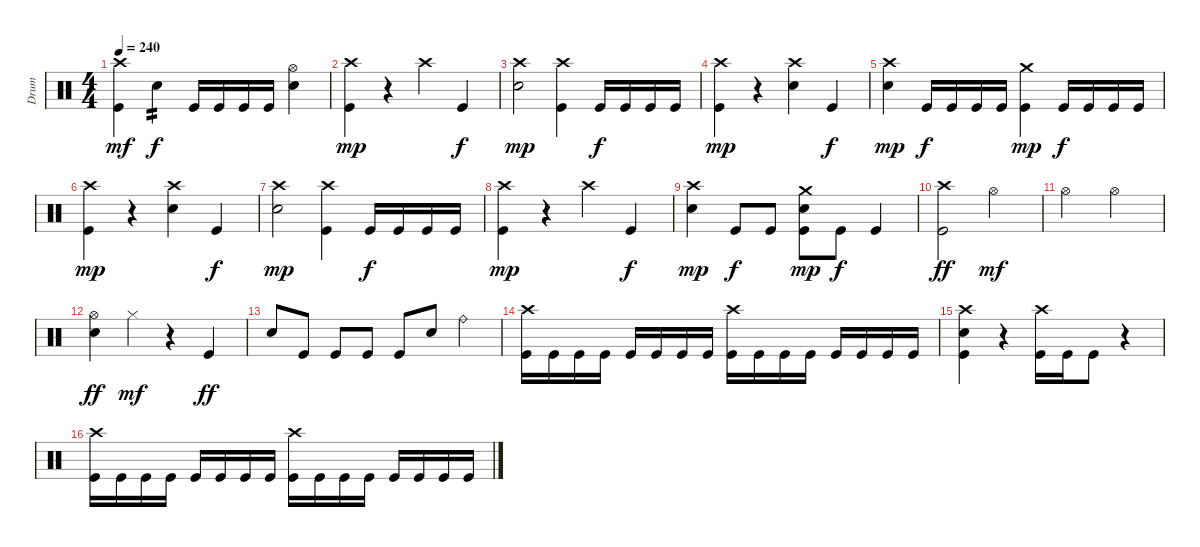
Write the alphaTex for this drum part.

\track ("Drum" "Drum") {instrument percussion}
\staff {score}
\articulation defaults
\ts (4 4)
\tempo 240
\clef neutral
\ks c
("Crash high (hit)" "Kick (hit)").4{dy mf} "Electric Snare (hit)".4{tp 2 dy f} "Kick (hit)".16 "Kick (hit)".16 "Kick (hit)".16 "Kick (hit)".16 ("Hi-Hat (open)" "Electric Snare (hit)").4 |
("Crash high (hit)" "Kick (hit)").4{dy mp} r.4 "Crash high (hit)".4 "Kick (hit)".4{dy f} |
("Crash high (hit)" "Electric Snare (hit)").2{dy mp} ("Crash high (hit)" "Kick (hit)").4 "Kick (hit)".16{dy f} "Kick (hit)".16 "Kick (hit)".16 "Kick (hit)".16 |
("Crash high (hit)" "Kick (hit)").4{dy mp} r.4 ("Crash high (hit)" "Electric Snare (hit)").4 "Kick (hit)".4{dy f} |
("Crash high (hit)" "Electric Snare (hit)").4{dy mp} "Kick (hit)".16{dy f} "Kick (hit)".16 "Kick (hit)".16 "Kick (hit)".16 ("Crash medium (hit)" "Kick (hit)").4{dy mp} "Kick (hit)".16{dy f} "Kick (hit)".16 "Kick (hit)".16 "Kick (hit)".16 |
("Crash high (hit)" "Kick (hit)").4{dy mp} r.4 ("Crash high (hit)" "Electric Snare (hit)").4 "Kick (hit)".4{dy f} |
("Crash high (hit)" "Electric Snare (hit)").2{dy mp} ("Crash high (hit)" "Kick (hit)").4 "Kick (hit)".16{dy f} "Kick (hit)".16 "Kick (hit)".16 "Kick (hit)".16 |
("Crash high (hit)" "Kick (hit)").4{dy mp} r.4 "Crash high (hit)".4 "Kick (hit)".4{dy f} |
("Crash high (hit)" "Electric Snare (hit)").4{dy mp} "Kick (hit)".8{dy f} "Kick (hit)".8 ("Crash medium (hit)" "Electric Snare (hit)" "Kick (hit)").8{dy mp} "Kick (hit)".8{dy f} "Kick (hit)".4 |
("Crash high (hit)" "Kick (hit)").2{dy ff} "Hi-Hat (open)".2{dy mf} |
"Hi-Hat (open)".2 "Hi-Hat (open)".2 |
("Hi-Hat (open)" "Electric Snare (hit)").4{dy ff} "Hi-Hat (closed)".4{dy mf} r.4 "Kick (hit)".4{dy ff} |
"Electric Snare (hit)".8 "Kick (hit)".8 "Kick (hit)".8 "Kick (hit)".8 "Kick (hit)".8 "Electric Snare (hit)".8 "Ride (bell)".4 |
("Crash high (hit)" "Kick (hit)").16 "Kick (hit)".16 "Kick (hit)".16 "Kick (hit)".16 "Kick (hit)".16 "Kick (hit)".16 "Kick (hit)".16 "Kick (hit)".16 ("Crash high (hit)" "Kick (hit)").16 "Kick (hit)".16 "Kick (hit)".16 "Kick (hit)".16 "Kick (hit)".16 "Kick (hit)".16 "Kick (hit)".16 "Kick (hit)".16 |
("Crash high (hit)" "Electric Snare (hit)" "Kick (hit)").4 r.4 ("Crash high (hit)" "Kick (hit)").16 "Kick (hit)".16 "Kick (hit)".8 r.4 |
("Crash high (hit)" "Kick (hit)").16 "Kick (hit)".16 "Kick (hit)".16 "Kick (hit)".16 "Kick (hit)".16 "Kick (hit)".16 "Kick (hit)".16 "Kick (hit)".16 ("Crash high (hit)" "Kick (hit)").16 "Kick (hit)".16 "Kick (hit)".16 "Kick (hit)".16 "Kick (hit)".16 "Kick (hit)".16 "Kick (hit)".16 "Kick (hit)".16
